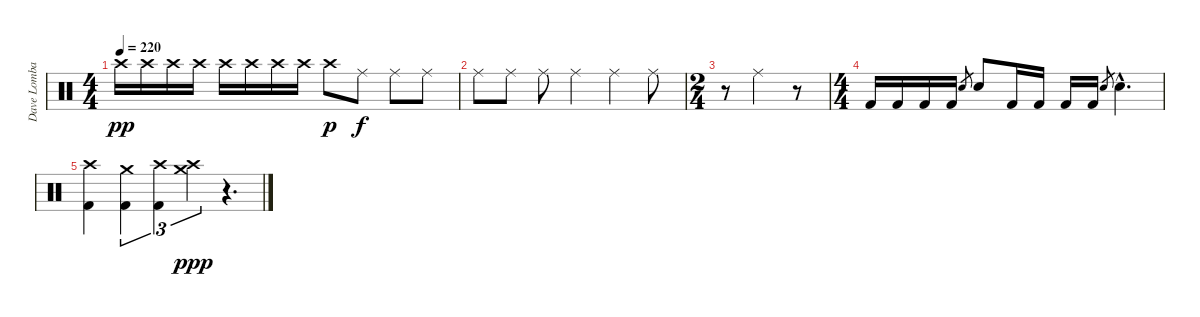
\track ("Dave Lombardo" "Dave Lomba") {instrument percussion}
\staff {score}
\articulation defaults
\ts (4 4)
\tempo 220
\clef neutral
\ks c "Crash high (hit)".16{dy pp} "Crash high (hit)".16 "Crash high (hit)".16 "Crash high (hit)".16 "Crash high (hit)".16 "Crash high (hit)".16 "Crash high (hit)".16 "Crash high (hit)".16 "Crash high (hit)".8{dy p} "Ride (middle)".8{dy f} "Ride (middle)".8 "Ride (middle)".8
|
"Ride (middle)".8 "Ride (middle)".8 "Ride (middle)".8 "Ride (middle)".4 "Ride (middle)".4 "Ride (middle)".8 |
\ts (2 4)
r.8 "Ride (middle)".4 r.8 |
\ts (4 4)
"Kick (hit) 2".16 "Kick (hit) 2".16 "Kick (hit) 2".16 "Kick (hit) 2".16 "Electric Snare (hit)".8{gr} "Electric Snare (hit)".8 "Kick (hit) 2".16 "Kick (hit) 2".16 "Kick (hit) 2".16 "Kick (hit) 2".16 "Electric Snare (hit)".8{gr} "Electric Snare (hit)"{hac}.4{d} |
("Crash high (hit)" "Kick (hit) 2").4 ("Crash medium (hit)" "Kick (hit) 2").4{tu (3 2)} ("Crash high (hit)" "Kick (hit) 2").4{tu (3 2)} ("Crash medium (hit)" "Crash high (hit)").4{tu (3 2) dy ppp} r.4{d tu (3 2)}
